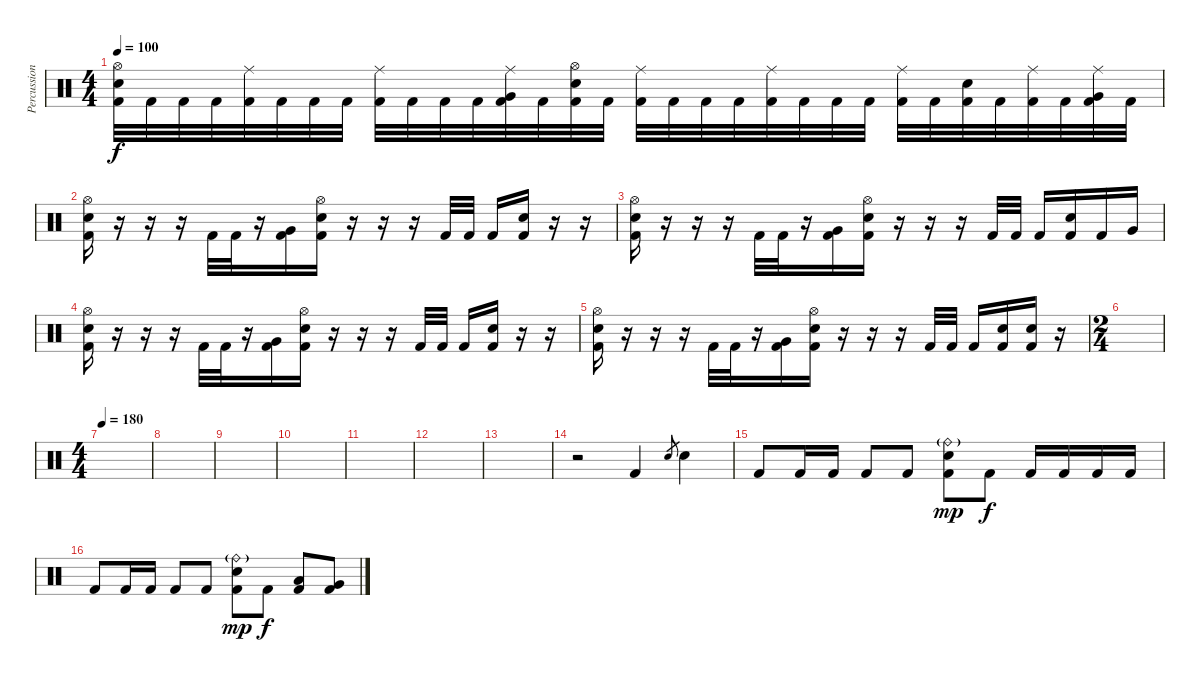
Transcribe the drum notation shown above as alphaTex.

\track ("Percussion" "Percussion") {instrument percussion}
\staff {score}
\articulation defaults
\ts (4 4)
\tempo 100
\clef neutral
\ks c
("Hi-Hat (open)" "Electric Snare (hit)" "Kick (hit) 2").32{dy f} "Kick (hit) 2".32 "Kick (hit) 2".32 "Kick (hit) 2".32 ("Ride (middle)" "Kick (hit) 2").32 "Kick (hit) 2".32 "Kick (hit) 2".32 "Kick (hit) 2".32 ("Ride (middle)" "Kick (hit) 2").32 "Kick (hit) 2".32 "Kick (hit) 2".32 "Kick (hit) 2".32 ("Ride (middle)" "Very Low Tom (hit)" "Kick (hit) 2").32 "Kick (hit) 2".32 ("Hi-Hat (open)" "Electric Snare (hit)" "Kick (hit) 2").32 "Kick (hit) 2".32 ("Ride (middle)" "Kick (hit) 2").32 "Kick (hit) 2".32 "Kick (hit) 2".32 "Kick (hit) 2".32 ("Ride (middle)" "Kick (hit) 2").32 "Kick (hit) 2".32 "Kick (hit) 2".32 "Kick (hit) 2".32 ("Ride (middle)" "Kick (hit) 2").32 "Kick (hit) 2".32 ("Electric Snare (hit)" "Kick (hit) 2").32 "Kick (hit) 2".32 ("Ride (middle)" "Kick (hit) 2").32 "Kick (hit) 2".32 ("Ride (middle)" "Very Low Tom (hit)" "Kick (hit) 2").32 "Kick (hit) 2".32 |
("Hi-Hat (open)" "Electric Snare (hit)" "Kick (hit) 2").16 r.16 r.16 r.16 "Kick (hit) 2".32 "Kick (hit) 2".32 r.16 ("Very Low Tom (hit)" "Kick (hit) 2").16 ("Hi-Hat (open)" "Electric Snare (hit)" "Kick (hit) 2").16 r.16 r.16 r.16 "Kick (hit) 2".32 "Kick (hit) 2".32 "Kick (hit) 2".16 ("Electric Snare (hit)" "Kick (hit) 2").16 r.16 r.16 |
("Hi-Hat (open)" "Electric Snare (hit)" "Kick (hit) 2").16 r.16 r.16 r.16 "Kick (hit) 2".32 "Kick (hit) 2".32 r.16 ("Very Low Tom (hit)" "Kick (hit) 2").16 ("Hi-Hat (open)" "Electric Snare (hit)" "Kick (hit) 2").16 r.16 r.16 r.16 "Kick (hit) 2".32 "Kick (hit) 2".32 "Kick (hit) 2".16 ("Electric Snare (hit)" "Kick (hit) 2").16 "Kick (hit) 2".16 "Very Low Tom (hit)".16 |
("Hi-Hat (open)" "Electric Snare (hit)" "Kick (hit) 2").16 r.16 r.16 r.16 "Kick (hit) 2".32 "Kick (hit) 2".32 r.16 ("Very Low Tom (hit)" "Kick (hit) 2").16 ("Hi-Hat (open)" "Electric Snare (hit)" "Kick (hit) 2").16 r.16 r.16 r.16 "Kick (hit) 2".32 "Kick (hit) 2".32 "Kick (hit) 2".16 ("Electric Snare (hit)" "Kick (hit) 2").16 r.16 r.16 |
("Hi-Hat (open)" "Electric Snare (hit)" "Kick (hit) 2").16 r.16 r.16 r.16 "Kick (hit) 2".32 "Kick (hit) 2".32 r.16 ("Very Low Tom (hit)" "Kick (hit) 2").16 ("Hi-Hat (open)" "Electric Snare (hit)" "Kick (hit) 2").16 r.16 r.16 r.16 "Kick (hit) 2".32 "Kick (hit) 2".32 "Kick (hit) 2".16 ("Electric Snare (hit)" "Kick (hit) 2").16 ("Electric Snare (hit)" "Kick (hit) 2").16 r.16 |
\ts (2 4)
|
\ts (4 4)
\tempo 180
|
|
|
|
|
|
|
r.2 "Kick (hit) 2".4 "Electric Snare (hit)".8{gr} "Electric Snare (hit)".4 |
"Kick (hit) 2".8 "Kick (hit) 2".16 "Kick (hit) 2".16 "Kick (hit) 2".8 "Kick (hit) 2".8 ("Ride (bell)"{g} "Electric Snare (hit)" "Kick (hit) 2").8{dy mp} "Kick (hit) 2".8{dy f} "Kick (hit) 2".16 "Kick (hit) 2".16 "Kick (hit) 2".16 "Kick (hit) 2".16 |
"Kick (hit) 2".8 "Kick (hit) 2".16 "Kick (hit) 2".16 "Kick (hit) 2".8 "Kick (hit) 2".8 ("Ride (bell)"{g} "Electric Snare (hit)" "Kick (hit) 2").8{dy mp} "Kick (hit) 2".8{dy f} ("Low Tom (hit)" "Kick (hit) 2").8 ("Very Low Tom (hit)" "Kick (hit) 2").8
